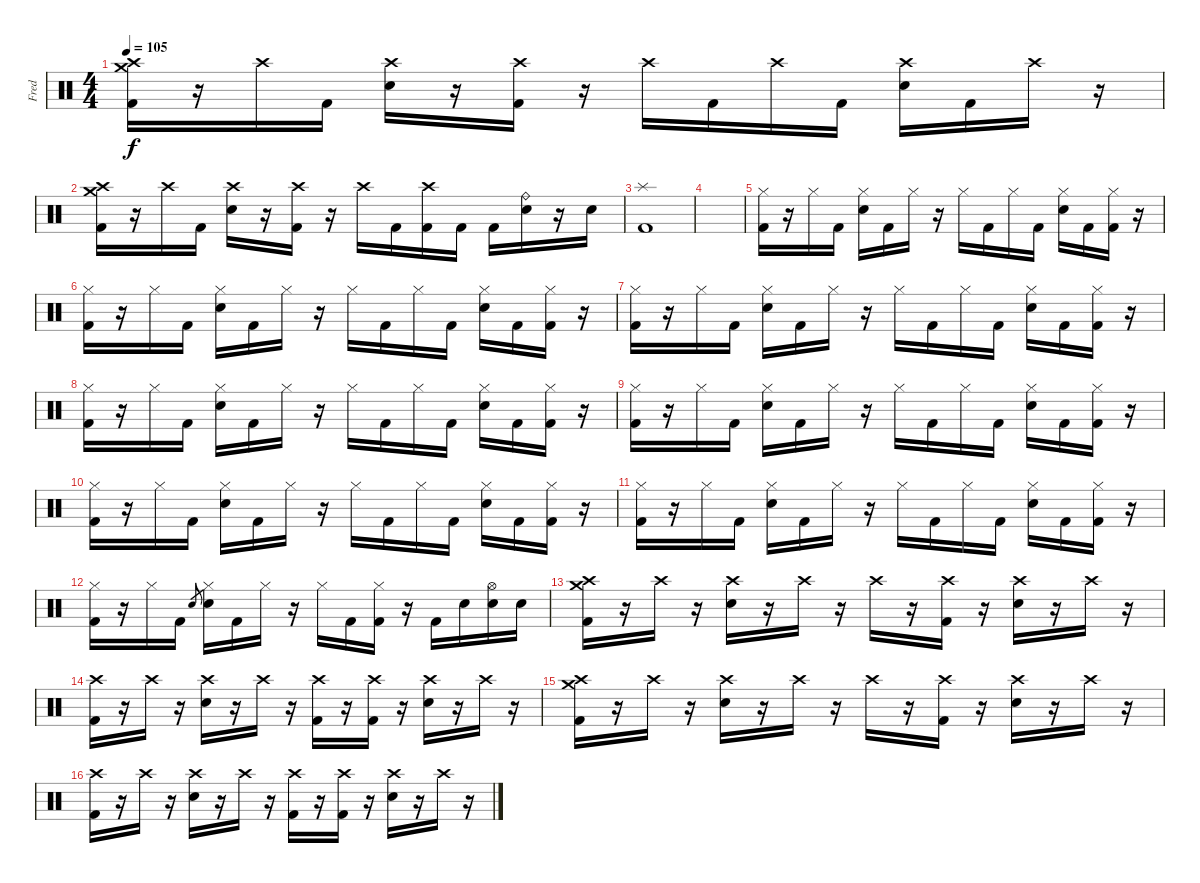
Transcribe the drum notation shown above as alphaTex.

\track ("Fred" "Fred") {instrument percussion}
\staff {score}
\articulation defaults
\ts (4 4)
\tempo 105
\clef neutral
\ks c
("Crash medium (hit)" "Crash high (hit)" "Kick (hit) 2").16{dy f} r.16 "Crash high (hit)".16 "Kick (hit) 2".16 ("Crash high (hit)" "Electric Snare (hit)").16 r.16 ("Crash high (hit)" "Kick (hit) 2").16 r.16 "Crash high (hit)".16 "Kick (hit) 2".16 "Crash high (hit)".16 "Kick (hit) 2".16 ("Crash high (hit)" "Electric Snare (hit)").16 "Kick (hit) 2".16 "Crash high (hit)".16 r.16 |
("Crash high (hit)" "Crash medium (hit)" "Kick (hit) 2").16 r.16 "Crash high (hit)".16 "Kick (hit) 2".16 ("Crash high (hit)" "Electric Snare (hit)").16 r.16 ("Crash high (hit)" "Kick (hit) 2").16 r.16 "Crash high (hit)".16 "Kick (hit) 2".16 ("Crash high (hit)" "Kick (hit) 2").16 "Kick (hit) 2".16 "Kick (hit) 2".16 ("Ride (bell)" "Electric Snare (hit)").16 r.16 "Electric Snare (hit)".16 |
("Splash (hit)" "Kick (hit) 2").1 |
|
("Hi-Hat (closed)" "Kick (hit) 2").16 r.16 "Hi-Hat (closed)".16 "Kick (hit) 2".16 ("Hi-Hat (closed)" "Electric Snare (hit)").16 "Kick (hit) 2".16 "Hi-Hat (closed)".16 r.16 "Hi-Hat (closed)".16 "Kick (hit) 2".16 "Hi-Hat (closed)".16 "Kick (hit) 2".16 ("Hi-Hat (closed)" "Electric Snare (hit)").16 "Kick (hit) 2".16 ("Hi-Hat (closed)" "Kick (hit) 2").16 r.16 |
("Hi-Hat (closed)" "Kick (hit) 2").16 r.16 "Hi-Hat (closed)".16 "Kick (hit) 2".16 ("Hi-Hat (closed)" "Electric Snare (hit)").16 "Kick (hit) 2".16 "Hi-Hat (closed)".16 r.16 "Hi-Hat (closed)".16 "Kick (hit) 2".16 "Hi-Hat (closed)".16 "Kick (hit) 2".16 ("Hi-Hat (closed)" "Electric Snare (hit)").16 "Kick (hit) 2".16 ("Hi-Hat (closed)" "Kick (hit) 2").16 r.16 |
("Hi-Hat (closed)" "Kick (hit) 2").16 r.16 "Hi-Hat (closed)".16 "Kick (hit) 2".16 ("Hi-Hat (closed)" "Electric Snare (hit)").16 "Kick (hit) 2".16 "Hi-Hat (closed)".16 r.16 "Hi-Hat (closed)".16 "Kick (hit) 2".16 "Hi-Hat (closed)".16 "Kick (hit) 2".16 ("Hi-Hat (closed)" "Electric Snare (hit)").16 "Kick (hit) 2".16 ("Hi-Hat (closed)" "Kick (hit) 2").16 r.16 |
("Hi-Hat (closed)" "Kick (hit) 2").16 r.16 "Hi-Hat (closed)".16 "Kick (hit) 2".16 ("Hi-Hat (closed)" "Electric Snare (hit)").16 "Kick (hit) 2".16 "Hi-Hat (closed)".16 r.16 "Hi-Hat (closed)".16 "Kick (hit) 2".16 "Hi-Hat (closed)".16 "Kick (hit) 2".16 ("Hi-Hat (closed)" "Electric Snare (hit)").16 "Kick (hit) 2".16 ("Hi-Hat (closed)" "Kick (hit) 2").16 r.16 |
("Hi-Hat (closed)" "Kick (hit) 2").16 r.16 "Hi-Hat (closed)".16 "Kick (hit) 2".16 ("Hi-Hat (closed)" "Electric Snare (hit)").16 "Kick (hit) 2".16 "Hi-Hat (closed)".16 r.16 "Hi-Hat (closed)".16 "Kick (hit) 2".16 "Hi-Hat (closed)".16 "Kick (hit) 2".16 ("Hi-Hat (closed)" "Electric Snare (hit)").16 "Kick (hit) 2".16 ("Hi-Hat (closed)" "Kick (hit) 2").16 r.16 |
("Hi-Hat (closed)" "Kick (hit) 2").16 r.16 "Hi-Hat (closed)".16 "Kick (hit) 2".16 ("Hi-Hat (closed)" "Electric Snare (hit)").16 "Kick (hit) 2".16 "Hi-Hat (closed)".16 r.16 "Hi-Hat (closed)".16 "Kick (hit) 2".16 "Hi-Hat (closed)".16 "Kick (hit) 2".16 ("Hi-Hat (closed)" "Electric Snare (hit)").16 "Kick (hit) 2".16 ("Hi-Hat (closed)" "Kick (hit) 2").16 r.16 |
("Hi-Hat (closed)" "Kick (hit) 2").16 r.16 "Hi-Hat (closed)".16 "Kick (hit) 2".16 ("Hi-Hat (closed)" "Electric Snare (hit)").16 "Kick (hit) 2".16 "Hi-Hat (closed)".16 r.16 "Hi-Hat (closed)".16 "Kick (hit) 2".16 "Hi-Hat (closed)".16 "Kick (hit) 2".16 ("Hi-Hat (closed)" "Electric Snare (hit)").16 "Kick (hit) 2".16 ("Hi-Hat (closed)" "Kick (hit) 2").16 r.16 |
("Hi-Hat (closed)" "Kick (hit) 2").16 r.16 "Hi-Hat (closed)".16 "Kick (hit) 2".16 "Electric Snare (hit)".8{gr} ("Hi-Hat (closed)" "Electric Snare (hit)").16 "Kick (hit) 2".16 "Hi-Hat (closed)".16 r.16 "Hi-Hat (closed)".16 "Kick (hit) 2".16 ("Hi-Hat (closed)" "Kick (hit) 2").16 r.16 "Kick (hit) 2".16 "Electric Snare (hit)".16 ("Hi-Hat (open)" "Electric Snare (hit)").16 "Electric Snare (hit)".16 |
("Crash high (hit)" "Crash medium (hit)" "Kick (hit) 2").16 r.16 "Crash high (hit)".16 r.16 ("Crash high (hit)" "Electric Snare (hit)").16 r.16 "Crash high (hit)".16 r.16 "Crash high (hit)".16 r.16 ("Crash high (hit)" "Kick (hit) 2").16 r.16 ("Crash high (hit)" "Electric Snare (hit)").16 r.16 "Crash high (hit)".16 r.16 |
("Crash high (hit)" "Kick (hit) 2").16 r.16 "Crash high (hit)".16 r.16 ("Crash high (hit)" "Electric Snare (hit)").16 r.16 "Crash high (hit)".16 r.16 ("Crash high (hit)" "Kick (hit) 2").16 r.16 ("Crash high (hit)" "Kick (hit) 2").16 r.16 ("Crash high (hit)" "Electric Snare (hit)").16 r.16 "Crash high (hit)".16 r.16 |
("Crash high (hit)" "Crash medium (hit)" "Kick (hit) 2").16 r.16 "Crash high (hit)".16 r.16 ("Crash high (hit)" "Electric Snare (hit)").16 r.16 "Crash high (hit)".16 r.16 "Crash high (hit)".16 r.16 ("Crash high (hit)" "Kick (hit) 2").16 r.16 ("Crash high (hit)" "Electric Snare (hit)").16 r.16 "Crash high (hit)".16 r.16 |
("Crash high (hit)" "Kick (hit) 2").16 r.16 "Crash high (hit)".16 r.16 ("Crash high (hit)" "Electric Snare (hit)").16 r.16 "Crash high (hit)".16 r.16 ("Crash high (hit)" "Kick (hit) 2").16 r.16 ("Crash high (hit)" "Kick (hit) 2").16 r.16 ("Crash high (hit)" "Electric Snare (hit)").16 r.16 "Crash high (hit)".16 r.16
